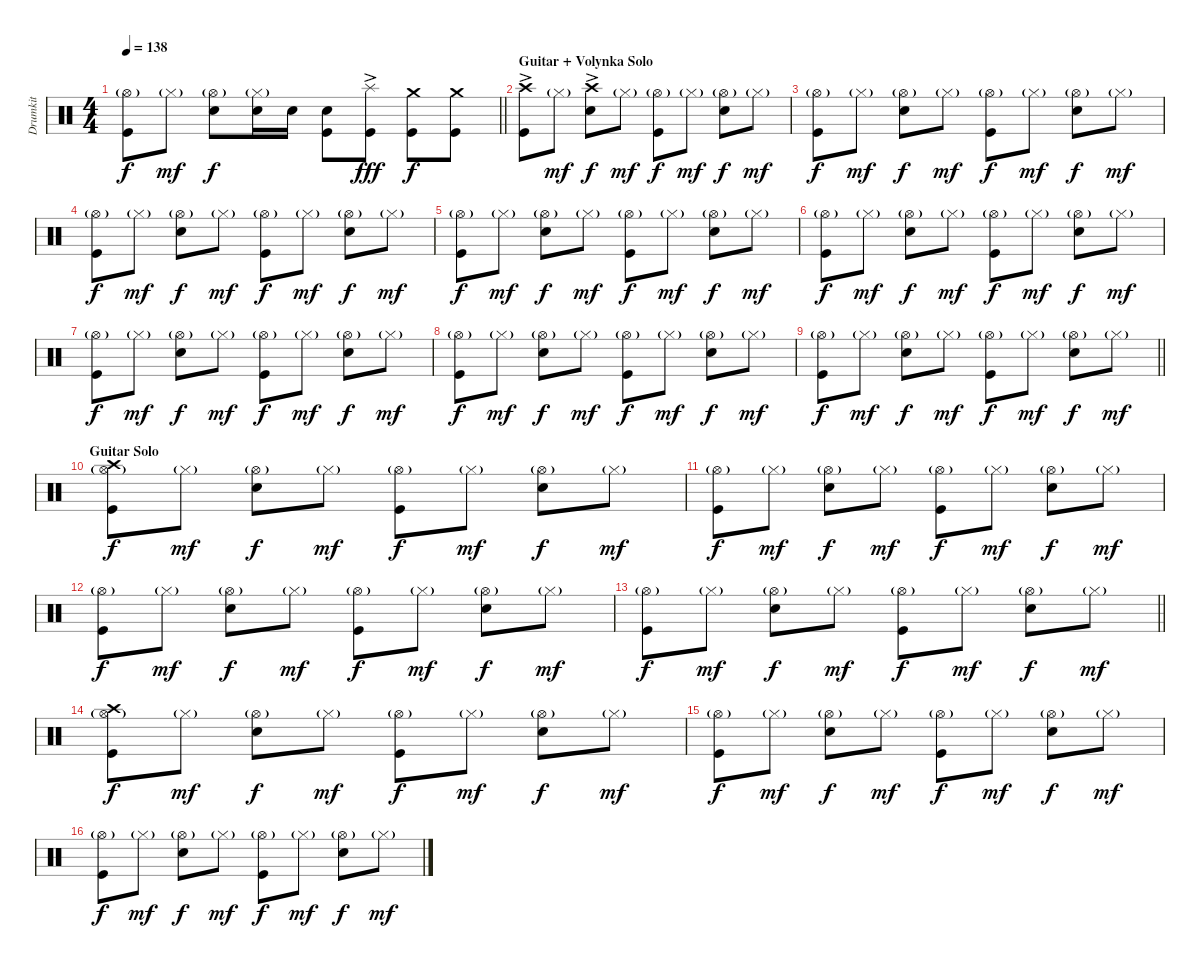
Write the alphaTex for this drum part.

\track ("Drumkit" "Drumkit") {instrument percussion}
\staff {score}
\articulation defaults
\ts (4 4)
\tempo 138
\clef neutral
\barLineRight lightlight
\ks c
("Hi-Hat (open)"{g} "Kick (hit)").8{dy f} "Hi-Hat (closed)"{g}.8{dy mf} ("Hi-Hat (open)"{g} "Snare (hit) 2").8{dy f} ("Hi-Hat (closed)"{g} "Snare (hit) 2").16 "Snare (hit) 2".16 ("Snare (hit) 2" "Kick (hit)").8 ("Splash (hit)"{ac} "Kick (hit)").8{dy fff} ("Crash medium (hit)" "Kick (hit)").8{dy f} ("Crash medium (hit)" "Kick (hit)").8 |
\section ("" "Guitar + Volynka Solo")
("Crash high (hit)"{ac} "Kick (hit)").8 "Hi-Hat (closed)"{g}.8{dy mf} ("Crash high (hit)"{ac} "Snare (hit) 2").8{dy f} "Hi-Hat (closed)"{g}.8{dy mf} ("Hi-Hat (open)"{g} "Kick (hit)").8{dy f} "Hi-Hat (closed)"{g}.8{dy mf} ("Hi-Hat (open)"{g} "Snare (hit) 2").8{dy f} "Hi-Hat (closed)"{g}.8{dy mf} |
("Hi-Hat (open)"{g} "Kick (hit)").8{dy f} "Hi-Hat (closed)"{g}.8{dy mf} ("Hi-Hat (open)"{g} "Snare (hit) 2").8{dy f} "Hi-Hat (closed)"{g}.8{dy mf} ("Hi-Hat (open)"{g} "Kick (hit)").8{dy f} "Hi-Hat (closed)"{g}.8{dy mf} ("Hi-Hat (open)"{g} "Snare (hit) 2").8{dy f} "Hi-Hat (closed)"{g}.8{dy mf} |
("Hi-Hat (open)"{g} "Kick (hit)").8{dy f} "Hi-Hat (closed)"{g}.8{dy mf} ("Hi-Hat (open)"{g} "Snare (hit) 2").8{dy f} "Hi-Hat (closed)"{g}.8{dy mf} ("Hi-Hat (open)"{g} "Kick (hit)").8{dy f} "Hi-Hat (closed)"{g}.8{dy mf} ("Hi-Hat (open)"{g} "Snare (hit) 2").8{dy f} "Hi-Hat (closed)"{g}.8{dy mf} |
("Hi-Hat (open)"{g} "Kick (hit)").8{dy f} "Hi-Hat (closed)"{g}.8{dy mf} ("Hi-Hat (open)"{g} "Snare (hit) 2").8{dy f} "Hi-Hat (closed)"{g}.8{dy mf} ("Hi-Hat (open)"{g} "Kick (hit)").8{dy f} "Hi-Hat (closed)"{g}.8{dy mf} ("Hi-Hat (open)"{g} "Snare (hit) 2").8{dy f} "Hi-Hat (closed)"{g}.8{dy mf} |
("Hi-Hat (open)"{g} "Kick (hit)").8{dy f} "Hi-Hat (closed)"{g}.8{dy mf} ("Hi-Hat (open)"{g} "Snare (hit) 2").8{dy f} "Hi-Hat (closed)"{g}.8{dy mf} ("Hi-Hat (open)"{g} "Kick (hit)").8{dy f} "Hi-Hat (closed)"{g}.8{dy mf} ("Hi-Hat (open)"{g} "Snare (hit) 2").8{dy f} "Hi-Hat (closed)"{g}.8{dy mf} |
("Hi-Hat (open)"{g} "Kick (hit)").8{dy f} "Hi-Hat (closed)"{g}.8{dy mf} ("Hi-Hat (open)"{g} "Snare (hit) 2").8{dy f} "Hi-Hat (closed)"{g}.8{dy mf} ("Hi-Hat (open)"{g} "Kick (hit)").8{dy f} "Hi-Hat (closed)"{g}.8{dy mf} ("Hi-Hat (open)"{g} "Snare (hit) 2").8{dy f} "Hi-Hat (closed)"{g}.8{dy mf} |
("Hi-Hat (open)"{g} "Kick (hit)").8{dy f} "Hi-Hat (closed)"{g}.8{dy mf} ("Hi-Hat (open)"{g} "Snare (hit) 2").8{dy f} "Hi-Hat (closed)"{g}.8{dy mf} ("Hi-Hat (open)"{g} "Kick (hit)").8{dy f} "Hi-Hat (closed)"{g}.8{dy mf} ("Hi-Hat (open)"{g} "Snare (hit) 2").8{dy f} "Hi-Hat (closed)"{g}.8{dy mf} |
\barLineRight lightlight
("Hi-Hat (open)"{g} "Kick (hit)").8{dy f} "Hi-Hat (closed)"{g}.8{dy mf} ("Hi-Hat (open)"{g} "Snare (hit) 2").8{dy f} "Hi-Hat (closed)"{g}.8{dy mf} ("Hi-Hat (open)"{g} "Kick (hit)").8{dy f} "Hi-Hat (closed)"{g}.8{dy mf} ("Hi-Hat (open)"{g} "Snare (hit) 2").8{dy f} "Hi-Hat (closed)"{g}.8{dy mf} |
\section ("" "Guitar Solo")
("Crash high (hit)" "Hi-Hat (open)"{g} "Kick (hit)").8{dy f} "Hi-Hat (closed)"{g}.8{dy mf} ("Hi-Hat (open)"{g} "Snare (hit) 2").8{dy f} "Hi-Hat (closed)"{g}.8{dy mf} ("Hi-Hat (open)"{g} "Kick (hit)").8{dy f} "Hi-Hat (closed)"{g}.8{dy mf} ("Hi-Hat (open)"{g} "Snare (hit) 2").8{dy f} "Hi-Hat (closed)"{g}.8{dy mf} |
("Hi-Hat (open)"{g} "Kick (hit)").8{dy f} "Hi-Hat (closed)"{g}.8{dy mf} ("Hi-Hat (open)"{g} "Snare (hit) 2").8{dy f} "Hi-Hat (closed)"{g}.8{dy mf} ("Hi-Hat (open)"{g} "Kick (hit)").8{dy f} "Hi-Hat (closed)"{g}.8{dy mf} ("Hi-Hat (open)"{g} "Snare (hit) 2").8{dy f} "Hi-Hat (closed)"{g}.8{dy mf} |
("Hi-Hat (open)"{g} "Kick (hit)").8{dy f} "Hi-Hat (closed)"{g}.8{dy mf} ("Hi-Hat (open)"{g} "Snare (hit) 2").8{dy f} "Hi-Hat (closed)"{g}.8{dy mf} ("Hi-Hat (open)"{g} "Kick (hit)").8{dy f} "Hi-Hat (closed)"{g}.8{dy mf} ("Hi-Hat (open)"{g} "Snare (hit) 2").8{dy f} "Hi-Hat (closed)"{g}.8{dy mf} |
\barLineRight lightlight
("Hi-Hat (open)"{g} "Kick (hit)").8{dy f} "Hi-Hat (closed)"{g}.8{dy mf} ("Hi-Hat (open)"{g} "Snare (hit) 2").8{dy f} "Hi-Hat (closed)"{g}.8{dy mf} ("Hi-Hat (open)"{g} "Kick (hit)").8{dy f} "Hi-Hat (closed)"{g}.8{dy mf} ("Hi-Hat (open)"{g} "Snare (hit) 2").8{dy f} "Hi-Hat (closed)"{g}.8{dy mf} |
("Crash high (hit)" "Hi-Hat (open)"{g} "Kick (hit)").8{dy f} "Hi-Hat (closed)"{g}.8{dy mf} ("Hi-Hat (open)"{g} "Snare (hit) 2").8{dy f} "Hi-Hat (closed)"{g}.8{dy mf} ("Hi-Hat (open)"{g} "Kick (hit)").8{dy f} "Hi-Hat (closed)"{g}.8{dy mf} ("Hi-Hat (open)"{g} "Snare (hit) 2").8{dy f} "Hi-Hat (closed)"{g}.8{dy mf} |
("Hi-Hat (open)"{g} "Kick (hit)").8{dy f} "Hi-Hat (closed)"{g}.8{dy mf} ("Hi-Hat (open)"{g} "Snare (hit) 2").8{dy f} "Hi-Hat (closed)"{g}.8{dy mf} ("Hi-Hat (open)"{g} "Kick (hit)").8{dy f} "Hi-Hat (closed)"{g}.8{dy mf} ("Hi-Hat (open)"{g} "Snare (hit) 2").8{dy f} "Hi-Hat (closed)"{g}.8{dy mf} |
("Hi-Hat (open)"{g} "Kick (hit)").8{dy f} "Hi-Hat (closed)"{g}.8{dy mf} ("Hi-Hat (open)"{g} "Snare (hit) 2").8{dy f} "Hi-Hat (closed)"{g}.8{dy mf} ("Hi-Hat (open)"{g} "Kick (hit)").8{dy f} "Hi-Hat (closed)"{g}.8{dy mf} ("Hi-Hat (open)"{g} "Snare (hit) 2").8{dy f} "Hi-Hat (closed)"{g}.8{dy mf}
